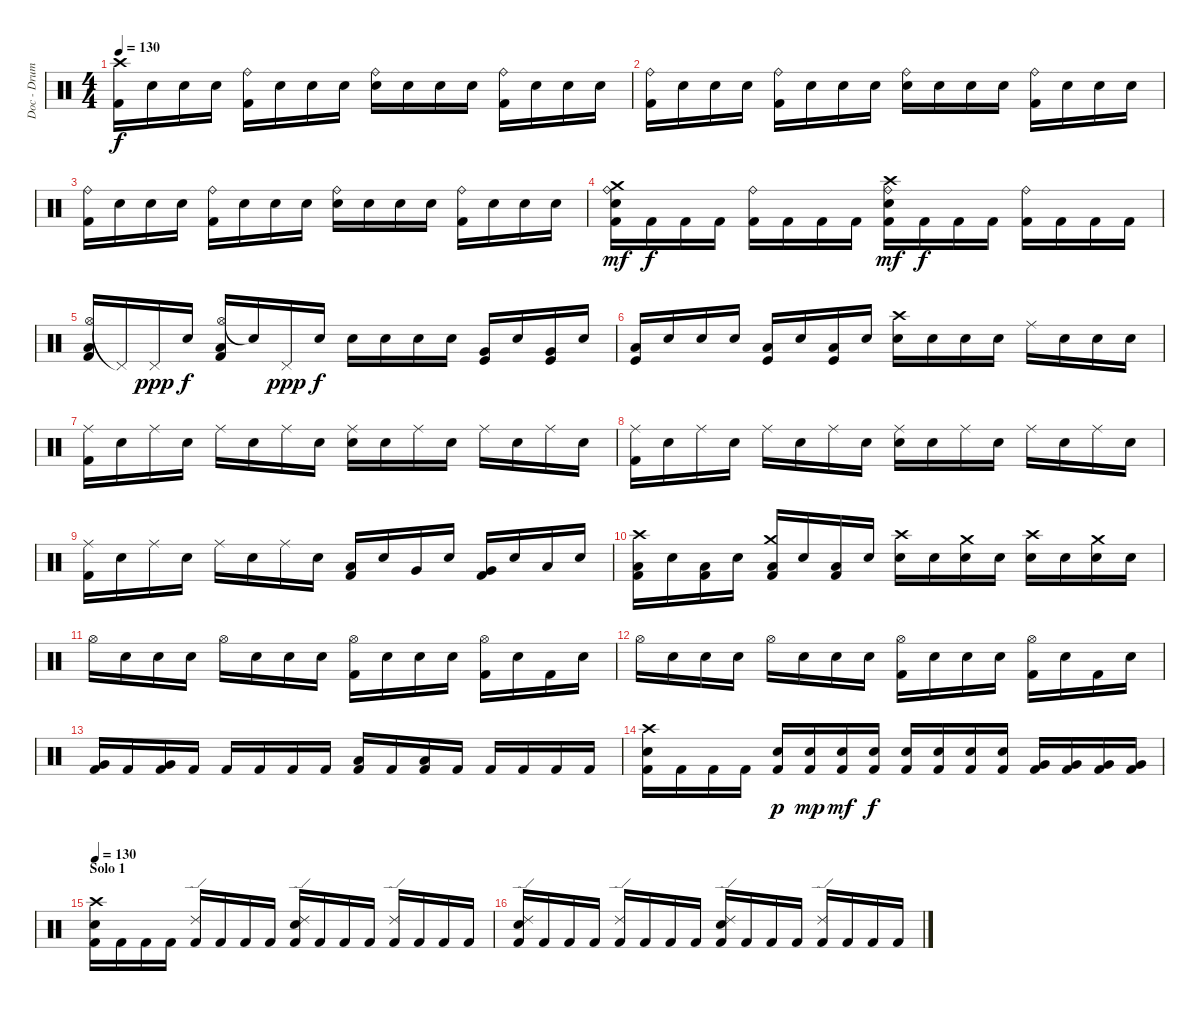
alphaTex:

\track ("Doc - Drums" "Doc - Drum") {instrument percussion}
\staff {score}
\articulation defaults
\ts (4 4)
\tempo 130
\clef neutral
\ks c
("Crash high (hit)" "Kick (hit) 2").16{dy f} "Snare (hit)".16 "Snare (hit)".16 "Snare (hit)".16 ("Ride (bell)" "Kick (hit) 2").16 "Snare (hit)".16 "Snare (hit)".16 "Snare (hit)".16 ("Ride (bell)" "Electric Snare (hit)").16 "Snare (hit)".16 "Snare (hit)".16 "Snare (hit)".16 ("Ride (bell)" "Kick (hit) 2").16 "Snare (hit)".16 "Snare (hit)".16 "Snare (hit)".16 |
("Ride (bell)" "Kick (hit) 2").16 "Snare (hit)".16 "Snare (hit)".16 "Snare (hit)".16 ("Ride (bell)" "Kick (hit) 2").16 "Snare (hit)".16 "Snare (hit)".16 "Snare (hit)".16 ("Ride (bell)" "Electric Snare (hit)").16 "Snare (hit)".16 "Snare (hit)".16 "Snare (hit)".16 ("Ride (bell)" "Kick (hit) 2").16 "Snare (hit)".16 "Snare (hit)".16 "Snare (hit)".16 |
("Ride (bell)" "Kick (hit) 2").16 "Snare (hit)".16 "Snare (hit)".16 "Snare (hit)".16 ("Ride (bell)" "Kick (hit) 2").16 "Snare (hit)".16 "Snare (hit)".16 "Snare (hit)".16 ("Ride (bell)" "Electric Snare (hit)").16 "Snare (hit)".16 "Snare (hit)".16 "Snare (hit)".16 ("Ride (bell)" "Kick (hit) 2").16 "Snare (hit)".16 "Snare (hit)".16 "Snare (hit)".16 |
("Ride (bell)" "Crash medium (hit)" "Electric Snare (hit)" "Kick (hit) 2").16{dy mf} "Kick (hit) 2".16{dy f} "Kick (hit) 2".16 "Kick (hit) 2".16 ("Ride (bell)" "Kick (hit) 2").16 "Kick (hit) 2".16 "Kick (hit) 2".16 "Kick (hit) 2".16 ("Ride (bell)" "Crash high (hit)" "Electric Snare (hit)" "Kick (hit) 2").16{dy mf} "Kick (hit) 2".16{dy f} "Kick (hit) 2".16 "Kick (hit) 2".16 ("Ride (bell)" "Kick (hit) 2").16 "Kick (hit) 2".16 "Kick (hit) 2".16 "Kick (hit) 2".16 |
("Hi-Hat (open)" "Low Floor Tom (hit)" "Kick (hit) 2").16{volume 16} "Pedal Hi-Hat (hit)"{t}.16 "Pedal Hi-Hat (hit)".16{dy ppp volume 0} "Snare (hit)".16{dy f} ("Hi-Hat (open)" "Low Floor Tom (hit)" "Kick (hit) 2").16{volume 16} "Snare (hit)"{t}.16 "Pedal Hi-Hat (hit)".16{dy ppp volume 0} "Snare (hit)".16{dy f} "Snare (hit)".16 "Snare (hit)".16 "Snare (hit)".16 "Snare (hit)".16 ("Very Low Tom (hit)" "Kick (hit)").16{volume 16} "Snare (hit)".16 ("Very Low Tom (hit)" "Kick (hit)").16 "Snare (hit)".16 |
("Low Floor Tom (hit)" "Kick (hit)").16 "Snare (hit)".16 "Snare (hit)".16 "Snare (hit)".16 ("Low Floor Tom (hit)" "Kick (hit)").16 "Snare (hit)".16 ("Low Floor Tom (hit)" "Kick (hit)").16 "Snare (hit)".16 ("Crash high (hit)" "Electric Snare (hit)").16 "Snare (hit)".16 "Snare (hit)".16 "Snare (hit)".16 "Ride (middle)".16 "Snare (hit)".16 "Snare (hit)".16 "Snare (hit)".16 |
("Ride (middle)" "Kick (hit) 2").16 "Snare (hit)".16 "Ride (middle)".16 "Snare (hit)".16 "Ride (middle)".16 "Snare (hit)".16 "Ride (middle)".16 "Snare (hit)".16 ("Ride (middle)" "Electric Snare (hit)").16 "Snare (hit)".16 "Ride (middle)".16 "Snare (hit)".16 "Ride (middle)".16 "Snare (hit)".16 "Ride (middle)".16 "Snare (hit)".16 |
("Ride (middle)" "Kick (hit) 2").16 "Snare (hit)".16 "Ride (middle)".16 "Snare (hit)".16 "Ride (middle)".16 "Snare (hit)".16 "Ride (middle)".16 "Snare (hit)".16 ("Ride (middle)" "Electric Snare (hit)").16 "Snare (hit)".16 "Ride (middle)".16 "Snare (hit)".16 "Ride (middle)".16 "Snare (hit)".16 "Ride (middle)".16 "Snare (hit)".16 |
("Ride (middle)" "Kick (hit) 2").16 "Snare (hit)".16 "Ride (middle)".16 "Snare (hit)".16 "Ride (middle)".16 "Snare (hit)".16 "Ride (middle)".16 "Snare (hit)".16 ("Low Tom (hit)" "Kick (hit) 2").16 "Snare (hit)".16 "Very Low Tom (hit)".16 "Snare (hit)".16 ("Very Low Tom (hit)" "Kick (hit) 2").16 "Snare (hit)".16 "Low Floor Tom (hit)".16 "Snare (hit)".16 |
("Crash high (hit)" "Low Floor Tom (hit)" "Kick (hit) 2").16 "Snare (hit)".16 ("Low Floor Tom (hit)" "Kick (hit) 2").16 "Snare (hit)".16 ("Crash medium (hit)" "Low Floor Tom (hit)" "Kick (hit) 2").16 "Snare (hit)".16 ("Low Floor Tom (hit)" "Kick (hit) 2").16 "Snare (hit)".16 ("Crash high (hit)" "Electric Snare (hit)").16 "Snare (hit)".16 ("Crash medium (hit)" "Electric Snare (hit)").16 "Snare (hit)".16 ("Crash high (hit)" "Electric Snare (hit)").16 "Snare (hit)".16 ("Crash medium (hit)" "Electric Snare (hit)").16 "Snare (hit)".16 |
"Hi-Hat (open)".16 "Snare (hit)".16 "Snare (hit)".16 "Snare (hit)".16 "Hi-Hat (open)".16 "Snare (hit)".16 "Snare (hit)".16 "Snare (hit)".16 ("Hi-Hat (open)" "Kick (hit) 2").16 "Snare (hit)".16 "Snare (hit)".16 "Snare (hit)".16 ("Hi-Hat (open)" "Kick (hit) 2").16 "Snare (hit)".16 "Kick (hit) 2".16 "Snare (hit)".16 |
"Hi-Hat (open)".16 "Snare (hit)".16 "Snare (hit)".16 "Snare (hit)".16 "Hi-Hat (open)".16 "Snare (hit)".16 "Snare (hit)".16 "Snare (hit)".16 ("Hi-Hat (open)" "Kick (hit) 2").16 "Snare (hit)".16 "Snare (hit)".16 "Snare (hit)".16 ("Hi-Hat (open)" "Kick (hit) 2").16 "Snare (hit)".16 "Kick (hit) 2".16 "Snare (hit)".16 |
("Very Low Tom (hit)" "Kick (hit) 2").16 "Kick (hit) 2".16 ("Very Low Tom (hit)" "Kick (hit) 2").16 "Kick (hit) 2".16 "Kick (hit) 2".16 "Kick (hit) 2".16 "Kick (hit) 2".16 "Kick (hit) 2".16 ("Low Tom (hit)" "Kick (hit) 2").16 "Kick (hit) 2".16 ("Low Tom (hit)" "Kick (hit) 2").16 "Kick (hit) 2".16 "Kick (hit) 2".16 "Kick (hit) 2".16 "Kick (hit) 2".16 "Kick (hit) 2".16 |
("Crash high (hit)" "Electric Snare (hit)" "Kick (hit) 2").16 "Kick (hit) 2".16 "Kick (hit) 2".16 "Kick (hit) 2".16 ("Electric Snare (hit)" "Kick (hit) 2").16{dy p} ("Electric Snare (hit)" "Kick (hit) 2").16{dy mp} ("Electric Snare (hit)" "Kick (hit) 2").16{dy mf} ("Electric Snare (hit)" "Kick (hit) 2").16{dy f} ("Electric Snare (hit)" "Kick (hit) 2").16 ("Electric Snare (hit)" "Kick (hit) 2").16 ("Electric Snare (hit)" "Kick (hit) 2").16 ("Electric Snare (hit)" "Kick (hit) 2").16 ("Very Low Tom (hit)" "Kick (hit) 2").16 ("Very Low Tom (hit)" "Kick (hit) 2").16 ("Very Low Tom (hit)" "Kick (hit) 2").16 ("Very Low Tom (hit)" "Kick (hit) 2").16 |
\section ("" "Solo 1")
\tempo 130
("Crash high (hit)" "Electric Snare (hit)" "Kick (hit) 2").16{volume 16 balance 8} "Kick (hit) 2".16 "Kick (hit) 2".16 "Kick (hit) 2".16 ("Ride (edge) 2" "Kick (hit) 2").16 "Kick (hit) 2".16 "Kick (hit) 2".16 "Kick (hit) 2".16 ("Ride (edge) 2" "Electric Snare (hit)" "Kick (hit) 2").16 "Kick (hit) 2".16 "Kick (hit) 2".16 "Kick (hit) 2".16 ("Ride (edge) 2" "Kick (hit) 2").16 "Kick (hit) 2".16 "Kick (hit) 2".16 "Kick (hit) 2".16 |
("Ride (edge) 2" "Electric Snare (hit)" "Kick (hit) 2").16 "Kick (hit) 2".16 "Kick (hit) 2".16 "Kick (hit) 2".16 ("Ride (edge) 2" "Kick (hit) 2").16 "Kick (hit) 2".16 "Kick (hit) 2".16 "Kick (hit) 2".16 ("Ride (edge) 2" "Electric Snare (hit)" "Kick (hit) 2").16 "Kick (hit) 2".16 "Kick (hit) 2".16 "Kick (hit) 2".16 ("Ride (edge) 2" "Kick (hit) 2").16 "Kick (hit) 2".16 "Kick (hit) 2".16 "Kick (hit) 2".16
